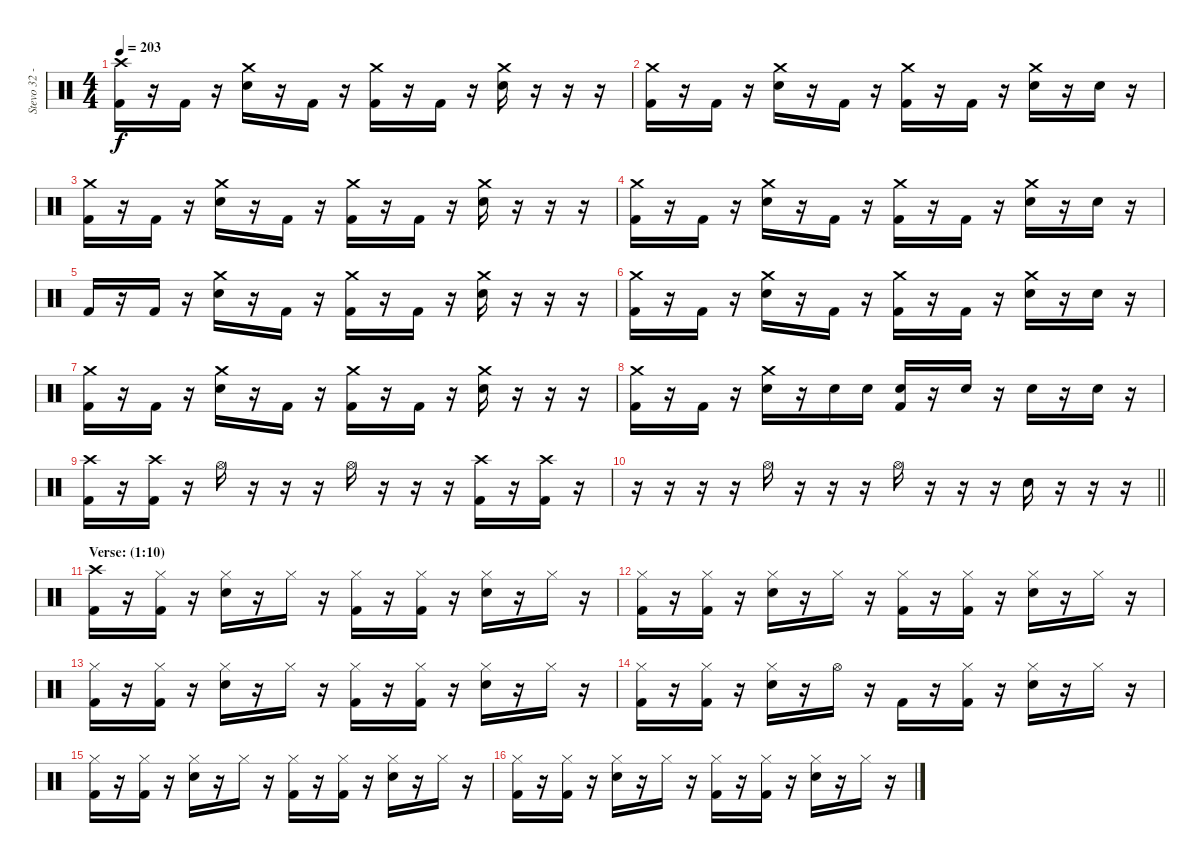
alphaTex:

\track ("Stevo 32 - Drums" "Stevo 32 -") {instrument percussion}
\staff {score}
\articulation defaults
\ts (4 4)
\tempo 203
\clef neutral
\ks c
("Crash high (hit)" "Kick (hit) 2").16{dy f} r.16 "Kick (hit) 2".16 r.16 ("Crash medium (hit)" "Snare (hit) 2").16 r.16 "Kick (hit) 2".16 r.16 ("Crash medium (hit)" "Kick (hit) 2").16 r.16 "Kick (hit) 2".16 r.16 ("Crash medium (hit)" "Snare (hit) 2").16 r.16 r.16 r.16 |
("Crash medium (hit)" "Kick (hit) 2").16 r.16 "Kick (hit) 2".16 r.16 ("Crash medium (hit)" "Snare (hit) 2").16 r.16 "Kick (hit) 2".16 r.16 ("Crash medium (hit)" "Kick (hit) 2").16 r.16 "Kick (hit) 2".16 r.16 ("Crash medium (hit)" "Snare (hit) 2").16 r.16 "Snare (hit) 2".16 r.16 |
("Crash medium (hit)" "Kick (hit) 2").16 r.16 "Kick (hit) 2".16 r.16 ("Crash medium (hit)" "Snare (hit) 2").16 r.16 "Kick (hit) 2".16 r.16 ("Crash medium (hit)" "Kick (hit) 2").16 r.16 "Kick (hit) 2".16 r.16 ("Crash medium (hit)" "Snare (hit) 2").16 r.16 r.16 r.16 |
("Crash medium (hit)" "Kick (hit) 2").16 r.16 "Kick (hit) 2".16 r.16 ("Crash medium (hit)" "Snare (hit) 2").16 r.16 "Kick (hit) 2".16 r.16 ("Crash medium (hit)" "Kick (hit) 2").16 r.16 "Kick (hit) 2".16 r.16 ("Crash medium (hit)" "Snare (hit) 2").16 r.16 "Snare (hit) 2".16 r.16 |
"Kick (hit) 2".16 r.16 "Kick (hit) 2".16 r.16 ("Crash medium (hit)" "Snare (hit) 2").16 r.16 "Kick (hit) 2".16 r.16 ("Crash medium (hit)" "Kick (hit) 2").16 r.16 "Kick (hit) 2".16 r.16 ("Crash medium (hit)" "Snare (hit) 2").16 r.16 r.16 r.16 |
("Crash medium (hit)" "Kick (hit) 2").16 r.16 "Kick (hit) 2".16 r.16 ("Crash medium (hit)" "Snare (hit) 2").16 r.16 "Kick (hit) 2".16 r.16 ("Crash medium (hit)" "Kick (hit) 2").16 r.16 "Kick (hit) 2".16 r.16 ("Crash medium (hit)" "Snare (hit) 2").16 r.16 "Snare (hit) 2".16 r.16 |
("Crash medium (hit)" "Kick (hit) 2").16 r.16 "Kick (hit) 2".16 r.16 ("Crash medium (hit)" "Snare (hit) 2").16 r.16 "Kick (hit) 2".16 r.16 ("Crash medium (hit)" "Kick (hit) 2").16 r.16 "Kick (hit) 2".16 r.16 ("Crash medium (hit)" "Snare (hit) 2").16 r.16 r.16 r.16 |
("Crash medium (hit)" "Kick (hit) 2").16 r.16 "Kick (hit) 2".16 r.16 ("Crash medium (hit)" "Snare (hit) 2").16 r.16 "Snare (hit) 2".16 "Snare (hit) 2".16 ("Snare (hit) 2" "Kick (hit) 2").16 r.16 "Snare (hit) 2".16 r.16 "Snare (hit) 2".16 r.16 "Snare (hit) 2".16 r.16 |
("Crash high (hit)" "Kick (hit) 2").16 r.16 ("Crash high (hit)" "Kick (hit) 2").16 r.16 "Hi-Hat (open)".16 r.16 r.16 r.16 "Hi-Hat (open)".16 r.16 r.16 r.16 ("Crash high (hit)" "Kick (hit) 2").16 r.16 ("Crash high (hit)" "Kick (hit) 2").16 r.16 |
\barLineRight lightlight
r.16 r.16 r.16 r.16 "Hi-Hat (open)".16 r.16 r.16 r.16 "Hi-Hat (open)".16 r.16 r.16 r.16 "Snare (hit) 2".16 r.16 r.16 r.16 |
\section ("" "Verse: (1:10)")
("Crash high (hit)" "Kick (hit) 2").16 r.16 ("Hi-Hat (closed)" "Kick (hit) 2").16 r.16 ("Hi-Hat (closed)" "Snare (hit) 2").16 r.16 "Hi-Hat (closed)".16 r.16 ("Hi-Hat (closed)" "Kick (hit) 2").16 r.16 ("Hi-Hat (closed)" "Kick (hit) 2").16 r.16 ("Hi-Hat (closed)" "Snare (hit) 2").16 r.16 "Hi-Hat (closed)".16 r.16 |
("Hi-Hat (closed)" "Kick (hit) 2").16 r.16 ("Hi-Hat (closed)" "Kick (hit) 2").16 r.16 ("Hi-Hat (closed)" "Snare (hit) 2").16 r.16 "Hi-Hat (closed)".16 r.16 ("Hi-Hat (closed)" "Kick (hit) 2").16 r.16 ("Hi-Hat (closed)" "Kick (hit) 2").16 r.16 ("Hi-Hat (closed)" "Snare (hit) 2").16 r.16 "Hi-Hat (closed)".16 r.16 |
("Hi-Hat (closed)" "Kick (hit) 2").16 r.16 ("Hi-Hat (closed)" "Kick (hit) 2").16 r.16 ("Hi-Hat (closed)" "Snare (hit) 2").16 r.16 "Hi-Hat (closed)".16 r.16 ("Hi-Hat (closed)" "Kick (hit) 2").16 r.16 ("Hi-Hat (closed)" "Kick (hit) 2").16 r.16 ("Hi-Hat (closed)" "Snare (hit) 2").16 r.16 "Hi-Hat (closed)".16 r.16 |
("Hi-Hat (closed)" "Kick (hit) 2").16 r.16 ("Hi-Hat (closed)" "Kick (hit) 2").16 r.16 ("Hi-Hat (closed)" "Snare (hit) 2").16 r.16 "Hi-Hat (open)".16 r.16 "Kick (hit) 2".16 r.16 ("Hi-Hat (closed)" "Kick (hit) 2").16 r.16 ("Hi-Hat (closed)" "Snare (hit) 2").16 r.16 "Hi-Hat (closed)".16 r.16 |
("Hi-Hat (closed)" "Kick (hit) 2").16 r.16 ("Hi-Hat (closed)" "Kick (hit) 2").16 r.16 ("Hi-Hat (closed)" "Snare (hit) 2").16 r.16 "Hi-Hat (closed)".16 r.16 ("Hi-Hat (closed)" "Kick (hit) 2").16 r.16 ("Hi-Hat (closed)" "Kick (hit) 2").16 r.16 ("Hi-Hat (closed)" "Snare (hit) 2").16 r.16 "Hi-Hat (closed)".16 r.16 |
("Hi-Hat (closed)" "Kick (hit) 2").16 r.16 ("Hi-Hat (closed)" "Kick (hit) 2").16 r.16 ("Hi-Hat (closed)" "Snare (hit) 2").16 r.16 "Hi-Hat (closed)".16 r.16 ("Hi-Hat (closed)" "Kick (hit) 2").16 r.16 ("Hi-Hat (closed)" "Kick (hit) 2").16 r.16 ("Hi-Hat (closed)" "Snare (hit) 2").16 r.16 "Hi-Hat (closed)".16 r.16
